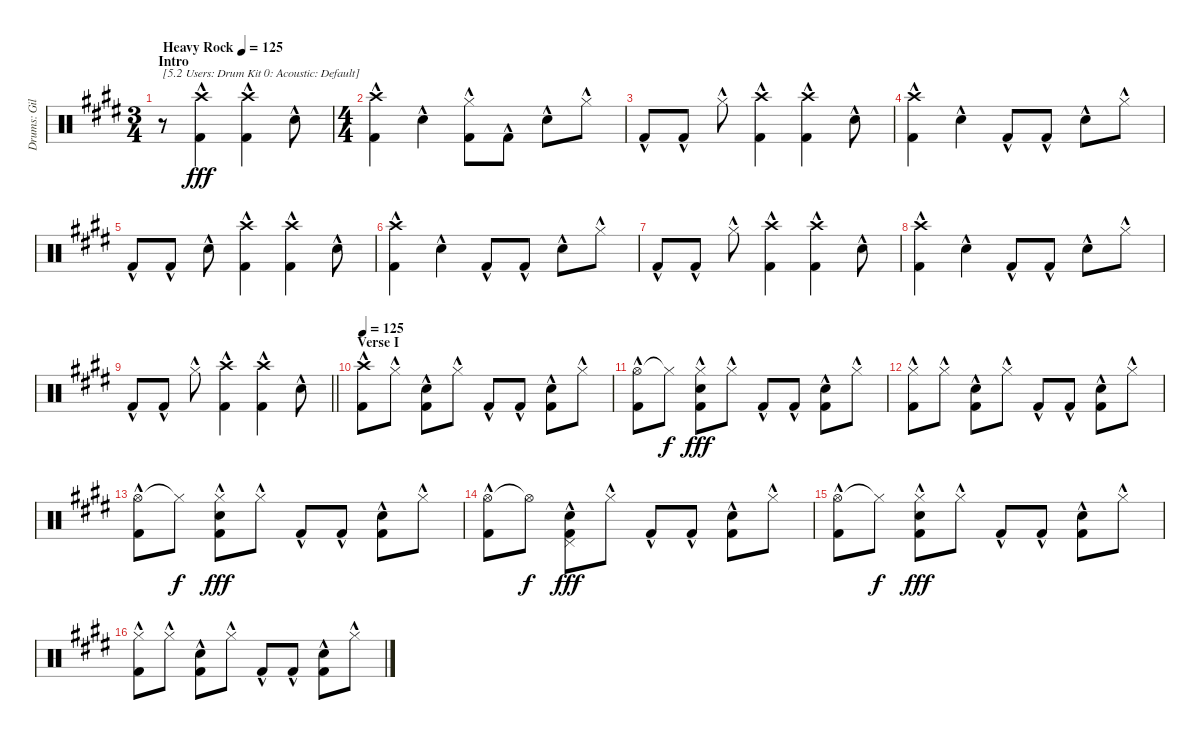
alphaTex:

\track ("Drums: Gil" "Drums: Gil") {instrument percussion}
\staff {score}
\articulation defaults
\ts (3 4)
\section ("" "Intro")
\tempo (125 "Heavy Rock")
\tempo 128
\tempo (125 "Heavy Rock")
\clef neutral
\ks e
r.8{txt "[5.2 Users: Drum Kit 0: Acoustic: Default]" dy fff} ("Crash high (hit)"{hac} "Kick (hit) 2"{hac}).4 ("Crash high (hit)"{hac} "Kick (hit) 2"{hac}).4 "Snare (hit) 2"{hac}.8 |
\ts (4 4)
("Crash high (hit)"{hac} "Kick (hit) 2"{hac}).4 "Snare (hit) 2"{hac}.4 ("Hi-Hat (closed)" "Kick (hit) 2"{hac}).8 "Kick (hit) 2"{hac}.8 "Snare (hit) 2"{hac}.8 "Hi-Hat (closed)"{hac}.8 |
"Kick (hit) 2"{hac}.8 "Kick (hit) 2"{hac}.8 "Hi-Hat (closed)"{hac}.8 ("Crash high (hit)"{hac} "Kick (hit) 2"{hac}).4 ("Crash high (hit)"{hac} "Kick (hit) 2"{hac}).4 "Snare (hit) 2"{hac}.8 |
("Crash high (hit)"{hac} "Kick (hit) 2"{hac}).4 "Snare (hit) 2"{hac}.4 "Kick (hit) 2"{hac}.8 "Kick (hit) 2"{hac}.8 "Snare (hit) 2"{hac}.8 "Hi-Hat (closed)"{hac}.8 |
"Kick (hit) 2"{hac}.8 "Kick (hit) 2"{hac}.8 "Snare (hit) 2"{hac}.8 ("Crash high (hit)"{hac} "Kick (hit) 2"{hac}).4 ("Crash high (hit)"{hac} "Kick (hit) 2"{hac}).4 "Snare (hit) 2"{hac}.8 |
("Crash high (hit)"{hac} "Kick (hit) 2"{hac}).4 "Snare (hit) 2"{hac}.4 "Kick (hit) 2"{hac}.8 "Kick (hit) 2"{hac}.8 "Snare (hit) 2"{hac}.8 "Hi-Hat (closed)"{hac}.8 |
"Kick (hit) 2"{hac}.8 "Kick (hit) 2"{hac}.8 "Hi-Hat (closed)"{hac}.8 ("Crash high (hit)"{hac} "Kick (hit) 2"{hac}).4 ("Crash high (hit)"{hac} "Kick (hit) 2"{hac}).4 "Snare (hit) 2"{hac}.8 |
("Crash high (hit)"{hac} "Kick (hit) 2"{hac}).4 "Snare (hit) 2"{hac}.4 "Kick (hit) 2"{hac}.8 "Kick (hit) 2"{hac}.8 "Snare (hit) 2"{hac}.8 "Hi-Hat (closed)"{hac}.8 |
\barLineRight lightlight "Kick (hit) 2"{hac}.8 "Kick (hit) 2"{hac}.8 "Hi-Hat (closed)"{hac}.8
("Crash high (hit)"{hac} "Kick (hit) 2"{hac}).4 ("Crash high (hit)"{hac} "Kick (hit) 2"{hac}).4 "Snare (hit) 2"{hac}.8 |
\section ("" "Verse I")
\tempo 125
("Crash high (hit)"{hac} "Kick (hit) 2"{hac}).8 "Hi-Hat (closed)"{hac}.8 ("Snare (hit) 2"{hac} "Kick (hit) 2"{hac}).8 "Hi-Hat (closed)"{hac}.8 "Kick (hit) 2"{hac}.8 "Kick (hit) 2"{hac}.8 ("Snare (hit) 2"{hac} "Kick (hit) 2"{hac}).8 "Hi-Hat (closed)"{hac}.8 |
("Hi-Hat (open)"{hac} "Kick (hit) 2"{hac}).8 "Hi-Hat (closed)"{t}.8{dy f} ("Hi-Hat (closed)"{hac} "Snare (hit) 2"{hac} "Kick (hit) 2"{hac}).8{dy fff} "Hi-Hat (closed)"{hac}.8 "Kick (hit) 2"{hac}.8 "Kick (hit) 2"{hac}.8 ("Snare (hit) 2"{hac} "Kick (hit) 2"{hac}).8 "Hi-Hat (closed)"{hac}.8 |
("Hi-Hat (closed)"{hac} "Kick (hit) 2"{hac}).8 "Hi-Hat (closed)"{hac}.8 ("Snare (hit) 2"{hac} "Kick (hit) 2"{hac}).8 "Hi-Hat (closed)"{hac}.8 "Kick (hit) 2"{hac}.8 "Kick (hit) 2"{hac}.8 ("Snare (hit) 2"{hac} "Kick (hit) 2"{hac}).8 "Hi-Hat (closed)"{hac}.8 |
("Hi-Hat (open)"{hac} "Kick (hit) 2"{hac}).8 "Hi-Hat (closed)"{t}.8{dy f} ("Hi-Hat (closed)"{hac} "Snare (hit) 2"{hac} "Kick (hit) 2"{hac}).8{dy fff} "Hi-Hat (closed)"{hac}.8 "Kick (hit) 2"{hac}.8 "Kick (hit) 2"{hac}.8 ("Snare (hit) 2"{hac} "Kick (hit) 2"{hac}).8 "Hi-Hat (closed)"{hac}.8 |
("Hi-Hat (open)"{hac} "Kick (hit) 2"{hac}).8 "Hi-Hat (open)"{t}.8{dy f} ("Pedal Hi-Hat (hit)"{hac} "Snare (hit) 2"{hac} "Kick (hit) 2"{hac}).8{dy fff} "Hi-Hat (closed)"{hac}.8 "Kick (hit) 2"{hac}.8 "Kick (hit) 2"{hac}.8 ("Snare (hit) 2"{hac} "Kick (hit) 2"{hac}).8 "Hi-Hat (closed)"{hac}.8 |
("Hi-Hat (open)"{hac} "Kick (hit) 2"{hac}).8 "Hi-Hat (closed)"{t}.8{dy f} ("Hi-Hat (closed)"{hac} "Snare (hit) 2"{hac} "Kick (hit) 2"{hac}).8{dy fff} "Hi-Hat (closed)"{hac}.8 "Kick (hit) 2"{hac}.8 "Kick (hit) 2"{hac}.8 ("Snare (hit) 2"{hac} "Kick (hit) 2"{hac}).8 "Hi-Hat (closed)"{hac}.8 |
("Hi-Hat (closed)"{hac} "Kick (hit) 2"{hac}).8 "Hi-Hat (closed)"{hac}.8 ("Snare (hit) 2"{hac} "Kick (hit) 2"{hac}).8 "Hi-Hat (closed)"{hac}.8 "Kick (hit) 2"{hac}.8 "Kick (hit) 2"{hac}.8 ("Snare (hit) 2"{hac} "Kick (hit) 2"{hac}).8 "Hi-Hat (closed)"{hac}.8
